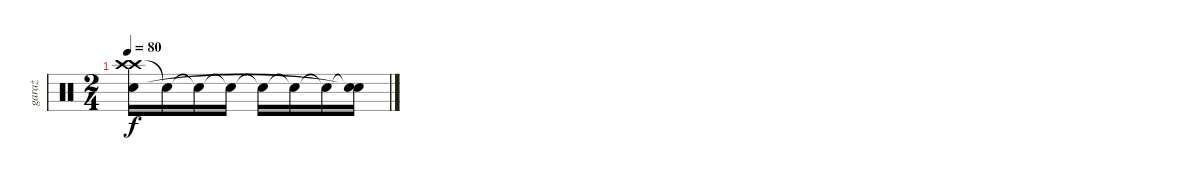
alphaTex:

\track ("garaż" "garaż") {instrument percussion}
\staff {score}
\articulation defaults
\ts (2 4)
\tempo 80
\clef neutral
\ks c
("Crash high (hit)" "Snare (hit) 2" "Crash high (hit)").16{dy f} "Snare (hit)"{t}.16 "Snare (hit)"{t}.16 "Snare (hit)"{t}.16 "Snare (hit)"{t}.16 "Snare (hit)"{t}.16 "Snare (hit)"{t}.16 ("Snare (hit)"{t} "Snare (hit)"{t}).16
